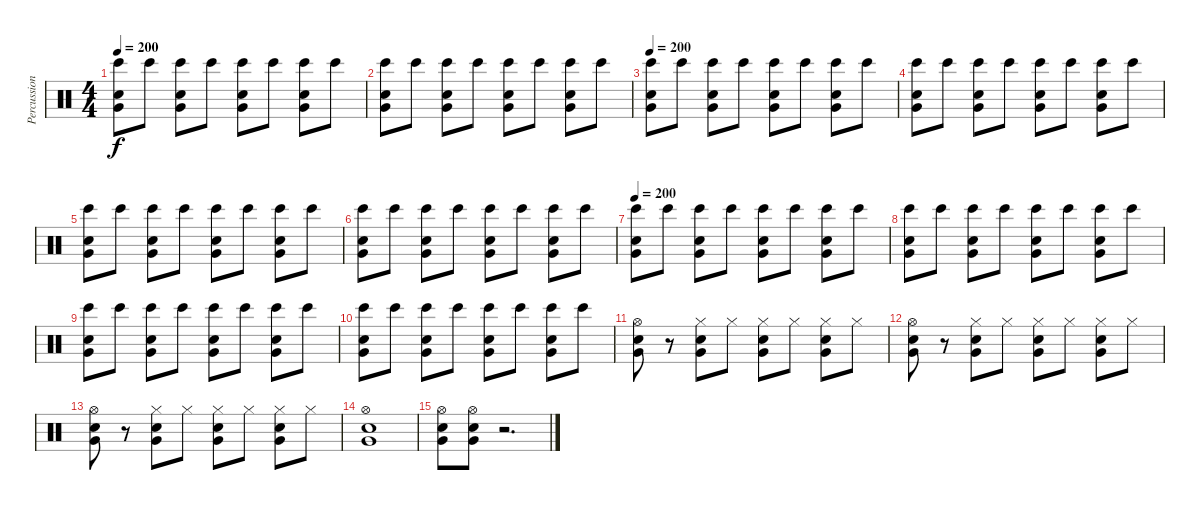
\track ("Percussion" "Percussion") {instrument percussion}
\staff {score}
\articulation defaults
\ts (4 4)
\tempo 200
\clef neutral
\ks c
("Very Low Tom (hit)" "Bongo High (hit)" "Snare (hit) 2").8{dy f} "Bongo High (hit)".8 ("Very Low Tom (hit)" "Bongo High (hit)" "Snare (hit) 2").8 "Bongo High (hit)".8 ("Very Low Tom (hit)" "Bongo High (hit)" "Snare (hit) 2").8 "Bongo High (hit)".8 ("Very Low Tom (hit)" "Bongo High (hit)" "Snare (hit) 2").8 "Bongo High (hit)".8 |
("Very Low Tom (hit)" "Bongo High (hit)" "Snare (hit) 2").8 "Bongo High (hit)".8 ("Very Low Tom (hit)" "Bongo High (hit)" "Snare (hit) 2").8 "Bongo High (hit)".8 ("Very Low Tom (hit)" "Bongo High (hit)" "Snare (hit) 2").8 "Bongo High (hit)".8 ("Very Low Tom (hit)" "Bongo High (hit)" "Snare (hit) 2").8 "Bongo High (hit)".8 |
\tempo 200
("Very Low Tom (hit)" "Bongo High (hit)" "Snare (hit) 2").8 "Bongo High (hit)".8 ("Very Low Tom (hit)" "Bongo High (hit)" "Snare (hit) 2").8 "Bongo High (hit)".8 ("Very Low Tom (hit)" "Bongo High (hit)" "Snare (hit) 2").8 "Bongo High (hit)".8 ("Very Low Tom (hit)" "Bongo High (hit)" "Snare (hit) 2").8 "Bongo High (hit)".8 |
("Very Low Tom (hit)" "Bongo High (hit)" "Snare (hit) 2").8 "Bongo High (hit)".8 ("Very Low Tom (hit)" "Bongo High (hit)" "Snare (hit) 2").8 "Bongo High (hit)".8 ("Very Low Tom (hit)" "Bongo High (hit)" "Snare (hit) 2").8 "Bongo High (hit)".8 ("Very Low Tom (hit)" "Bongo High (hit)" "Snare (hit) 2").8 "Bongo High (hit)".8 |
("Very Low Tom (hit)" "Bongo High (hit)" "Snare (hit) 2").8 "Bongo High (hit)".8 ("Very Low Tom (hit)" "Bongo High (hit)" "Snare (hit) 2").8 "Bongo High (hit)".8 ("Very Low Tom (hit)" "Bongo High (hit)" "Snare (hit) 2").8 "Bongo High (hit)".8 ("Very Low Tom (hit)" "Bongo High (hit)" "Snare (hit) 2").8 "Bongo High (hit)".8 |
("Very Low Tom (hit)" "Bongo High (hit)" "Snare (hit) 2").8 "Bongo High (hit)".8 ("Very Low Tom (hit)" "Bongo High (hit)" "Snare (hit) 2").8 "Bongo High (hit)".8 ("Very Low Tom (hit)" "Bongo High (hit)" "Snare (hit) 2").8 "Bongo High (hit)".8 ("Very Low Tom (hit)" "Bongo High (hit)" "Snare (hit) 2").8 "Bongo High (hit)".8 |
\tempo 200
("Very Low Tom (hit)" "Bongo High (hit)" "Snare (hit) 2").8 "Bongo High (hit)".8 ("Very Low Tom (hit)" "Bongo High (hit)" "Snare (hit) 2").8 "Bongo High (hit)".8 ("Very Low Tom (hit)" "Bongo High (hit)" "Snare (hit) 2").8 "Bongo High (hit)".8 ("Very Low Tom (hit)" "Bongo High (hit)" "Snare (hit) 2").8 "Bongo High (hit)".8 |
("Very Low Tom (hit)" "Bongo High (hit)" "Snare (hit) 2").8 "Bongo High (hit)".8 ("Very Low Tom (hit)" "Bongo High (hit)" "Snare (hit) 2").8 "Bongo High (hit)".8 ("Very Low Tom (hit)" "Bongo High (hit)" "Snare (hit) 2").8 "Bongo High (hit)".8 ("Very Low Tom (hit)" "Bongo High (hit)" "Snare (hit) 2").8 "Bongo High (hit)".8 |
("Very Low Tom (hit)" "Bongo High (hit)" "Snare (hit) 2").8 "Bongo High (hit)".8 ("Very Low Tom (hit)" "Bongo High (hit)" "Snare (hit) 2").8 "Bongo High (hit)".8 ("Very Low Tom (hit)" "Bongo High (hit)" "Snare (hit) 2").8 "Bongo High (hit)".8 ("Very Low Tom (hit)" "Bongo High (hit)" "Snare (hit) 2").8 "Bongo High (hit)".8 |
("Very Low Tom (hit)" "Bongo High (hit)" "Snare (hit) 2").8 "Bongo High (hit)".8 ("Very Low Tom (hit)" "Bongo High (hit)" "Snare (hit) 2").8 "Bongo High (hit)".8 ("Very Low Tom (hit)" "Bongo High (hit)" "Snare (hit) 2").8 "Bongo High (hit)".8 ("Very Low Tom (hit)" "Bongo High (hit)" "Snare (hit) 2").8 "Bongo High (hit)".8 |
("Hi-Hat (open)" "Very Low Tom (hit)" "Snare (hit) 2").8 r.8 ("Very Low Tom (hit)" "Hi-Hat (closed)" "Snare (hit) 2").8 "Hi-Hat (closed)".8 ("Very Low Tom (hit)" "Hi-Hat (closed)" "Snare (hit) 2").8 "Hi-Hat (closed)".8 ("Very Low Tom (hit)" "Hi-Hat (closed)" "Snare (hit) 2").8 "Hi-Hat (closed)".8 |
("Hi-Hat (open)" "Very Low Tom (hit)" "Snare (hit) 2").8 r.8 ("Very Low Tom (hit)" "Hi-Hat (closed)" "Snare (hit) 2").8 "Hi-Hat (closed)".8 ("Very Low Tom (hit)" "Hi-Hat (closed)" "Snare (hit) 2").8 "Hi-Hat (closed)".8 ("Very Low Tom (hit)" "Hi-Hat (closed)" "Snare (hit) 2").8 "Hi-Hat (closed)".8 |
("Hi-Hat (open)" "Very Low Tom (hit)" "Snare (hit) 2").8 r.8 ("Very Low Tom (hit)" "Hi-Hat (closed)" "Snare (hit) 2").8 "Hi-Hat (closed)".8 ("Very Low Tom (hit)" "Hi-Hat (closed)" "Snare (hit) 2").8 "Hi-Hat (closed)".8 ("Very Low Tom (hit)" "Hi-Hat (closed)" "Snare (hit) 2").8 "Hi-Hat (closed)".8 |
("Hi-Hat (open)" "Very Low Tom (hit)" "Snare (hit) 2").1 |
("Hi-Hat (open)" "Very Low Tom (hit)" "Snare (hit) 2").8 ("Hi-Hat (open)" "Very Low Tom (hit)" "Snare (hit) 2").8 r.2{d}
